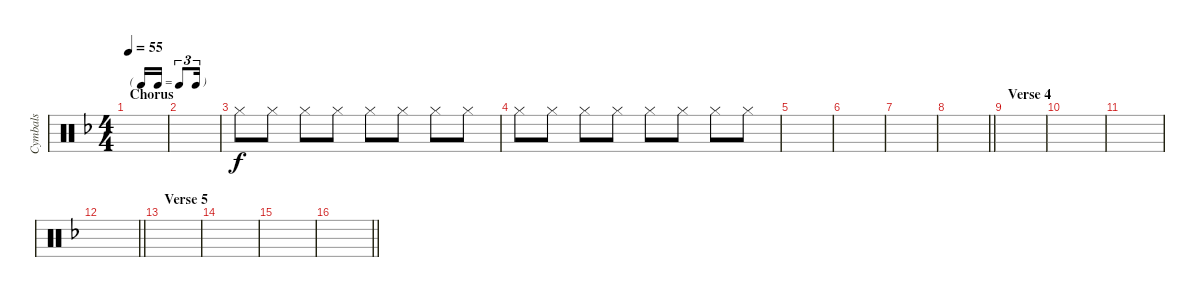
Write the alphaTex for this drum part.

\track ("Cymbals" "Cymbals") {instrument percussion}
\staff {score}
\articulation defaults
\ts (4 4)
\tf triplet16th
\section ("" "Chorus")
\tempo 55
\clef neutral
\ks dminor
|
|
"Hi-Hat (closed)".8 "Hi-Hat (closed)".8 "Hi-Hat (closed)".8 "Hi-Hat (closed)".8 "Hi-Hat (closed)".8 "Hi-Hat (closed)".8 "Hi-Hat (closed)".8 "Hi-Hat (closed)".8 |
"Hi-Hat (closed)".8 "Hi-Hat (closed)".8 "Hi-Hat (closed)".8 "Hi-Hat (closed)".8 "Hi-Hat (closed)".8 "Hi-Hat (closed)".8 "Hi-Hat (closed)".8 "Hi-Hat (closed)".8 |
|
|
|
\barLineRight lightlight
|
\section ("" "Verse 4")
|
|
|
\barLineRight lightlight
|
\section ("" "Verse 5")
|
|
|
\barLineRight lightlight
